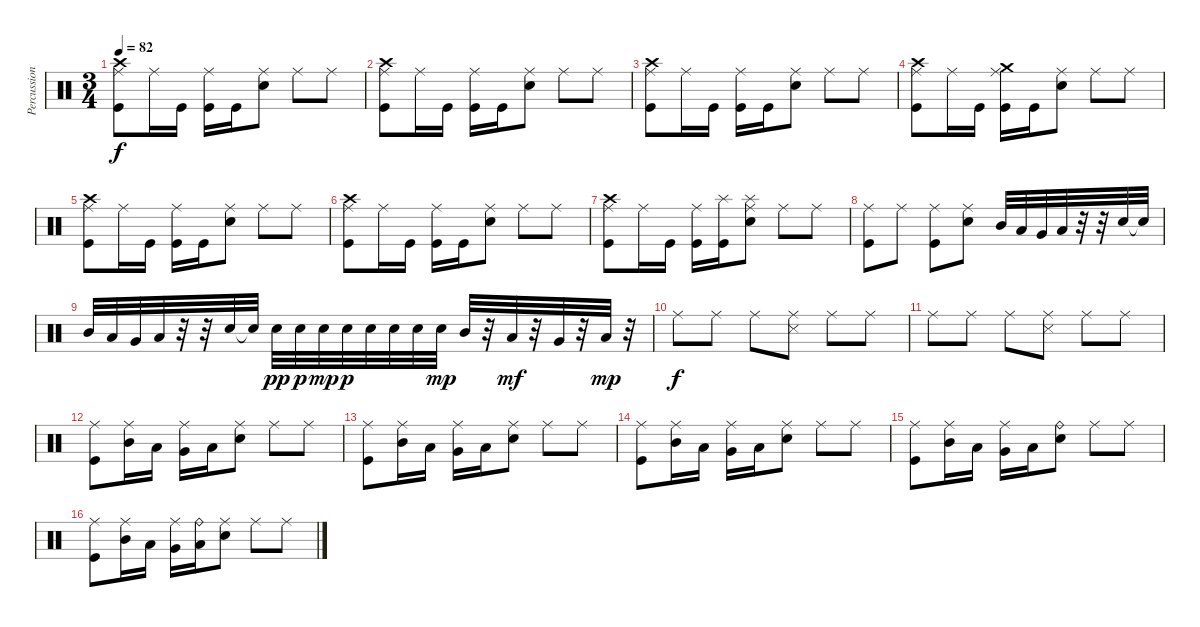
\track ("Percussions" "Percussion") {instrument percussion}
\staff {score}
\articulation defaults
\ts (3 4)
\tempo 82
\clef neutral
\ks c
("Ride (middle)" "Crash high (hit)" "Kick (hit)").8{dy f} "Ride (middle)".16 "Kick (hit)".16 ("Ride (middle)" "Kick (hit)").16 "Kick (hit)".16 ("Ride (middle)" "Electric Snare (hit)").8 "Ride (middle)".8 "Ride (middle)".8 |
("Ride (middle)" "Crash high (hit)" "Kick (hit)").8 "Ride (middle)".16 "Kick (hit)".16 ("Ride (middle)" "Kick (hit)").16 "Kick (hit)".16 ("Ride (middle)" "Electric Snare (hit)").8 "Ride (middle)".8 "Ride (middle)".8 |
("Ride (middle)" "Crash high (hit)" "Kick (hit)").8 "Ride (middle)".16 "Kick (hit)".16 ("Ride (middle)" "Kick (hit)").16 "Kick (hit)".16 ("Ride (middle)" "Electric Snare (hit)").8 "Ride (middle)".8 "Ride (middle)".8 |
("Ride (middle)" "Crash high (hit)" "Kick (hit)").8 "Ride (middle)".16 "Kick (hit)".16 ("Ride (middle)" "Crash medium (hit)" "Kick (hit)").16 "Kick (hit)".16 ("Ride (middle)" "Electric Snare (hit)").8 "Ride (middle)".8 "Ride (middle)".8 |
("Ride (middle)" "Crash high (hit)" "Kick (hit)").8 "Ride (middle)".16 "Kick (hit)".16 ("Ride (middle)" "Kick (hit)").16 "Kick (hit)".16 ("Ride (middle)" "Electric Snare (hit)").8 "Ride (middle)".8 "Ride (middle)".8 |
("Ride (middle)" "Crash high (hit)" "Kick (hit)").8 "Ride (middle)".16 "Kick (hit)".16 ("Ride (middle)" "Kick (hit)").16 "Kick (hit)".16 ("Ride (middle)" "Electric Snare (hit)").8 "Ride (middle)".8 "Ride (middle)".8 |
("Ride (middle)" "Crash high (hit)" "Kick (hit)").8 "Ride (middle)".16 "Kick (hit)".16 ("Ride (middle)" "Kick (hit)").16 ("Splash (hit)" "Kick (hit)").16 ("Ride (middle)" "Splash (hit)" "Electric Snare (hit)").8 "Ride (middle)".8 "Ride (middle)".8 |
("Ride (middle)" "Kick (hit)").8 "Ride (middle)".8 ("Ride (middle)" "Kick (hit)").8 ("Ride (middle)" "Electric Snare (hit)").8 "Mid Tom (hit)".32 "Low Tom (hit)".32 "Very Low Tom (hit)".32 "Low Floor Tom (hit)".32 r.32 r.32 "Electric Snare (hit)".32 "Snare (hit)"{t}.32 |
"Mid Tom (hit)".32 "Low Tom (hit)".32 "Very Low Tom (hit)".32 "Low Floor Tom (hit)".32 r.32 r.32 "Snare (hit) 2".32 "Snare (hit)"{t}.32 "Electric Snare (hit)".32{dy pp} "Electric Snare (hit)".32{dy p} "Electric Snare (hit)".32{dy mp} "Electric Snare (hit)".32{dy p} "Electric Snare (hit)".32 "Electric Snare (hit)".32 "Electric Snare (hit)".32 "Electric Snare (hit)".32{dy mp} "Mid Tom (hit)".32 r.32 "Low Tom (hit)".32{dy mf} r.32 "Very Low Tom (hit)".32 r.32 "Low Floor Tom (hit)".32{dy mp} r.32 |
"Ride (middle)".8{dy f} "Ride (middle)".8 "Ride (middle)".8 ("Ride (middle)" "Metronome (hit)").8 "Ride (middle)".8 "Ride (middle)".8 |
"Ride (middle)".8 "Ride (middle)".8 "Ride (middle)".8 ("Ride (middle)" "Metronome (hit)").8 "Ride (middle)".8 "Ride (middle)".8 |
("Ride (middle)" "Kick (hit)").8 ("Ride (middle)" "Mid Tom (hit)").16 "Low Tom (hit)".16 ("Ride (middle)" "Very Low Tom (hit)").16 "Low Floor Tom (hit)".16 ("Ride (middle)" "Electric Snare (hit)").8 "Ride (middle)".8 "Ride (middle)".8 |
("Ride (middle)" "Kick (hit)").8 ("Ride (middle)" "Mid Tom (hit)").16 "Low Tom (hit)".16 ("Ride (middle)" "Very Low Tom (hit)").16 "Low Floor Tom (hit)".16 ("Ride (middle)" "Electric Snare (hit)").8 "Ride (middle)".8 "Ride (middle)".8 |
("Ride (middle)" "Kick (hit)").8 ("Ride (middle)" "Mid Tom (hit)").16 "Low Tom (hit)".16 ("Ride (middle)" "Very Low Tom (hit)").16 "Low Floor Tom (hit)".16 ("Ride (middle)" "Electric Snare (hit)").8 "Ride (middle)".8 "Ride (middle)".8 |
("Ride (middle)" "Kick (hit)").8 ("Ride (middle)" "Mid Tom (hit)").16 "Low Tom (hit)".16 ("Ride (middle)" "Very Low Tom (hit)").16 "Low Floor Tom (hit)".16 ("Ride (bell)" "Electric Snare (hit)").8 "Ride (middle)".8 "Ride (middle)".8 |
("Ride (middle)" "Kick (hit)").8 ("Ride (middle)" "Mid Tom (hit)").16 "Low Tom (hit)".16 ("Ride (middle)" "Very Low Tom (hit)").16 ("Ride (bell)" "Low Floor Tom (hit)").16 ("Ride (middle)" "Electric Snare (hit)").8 "Ride (middle)".8 "Ride (middle)".8
